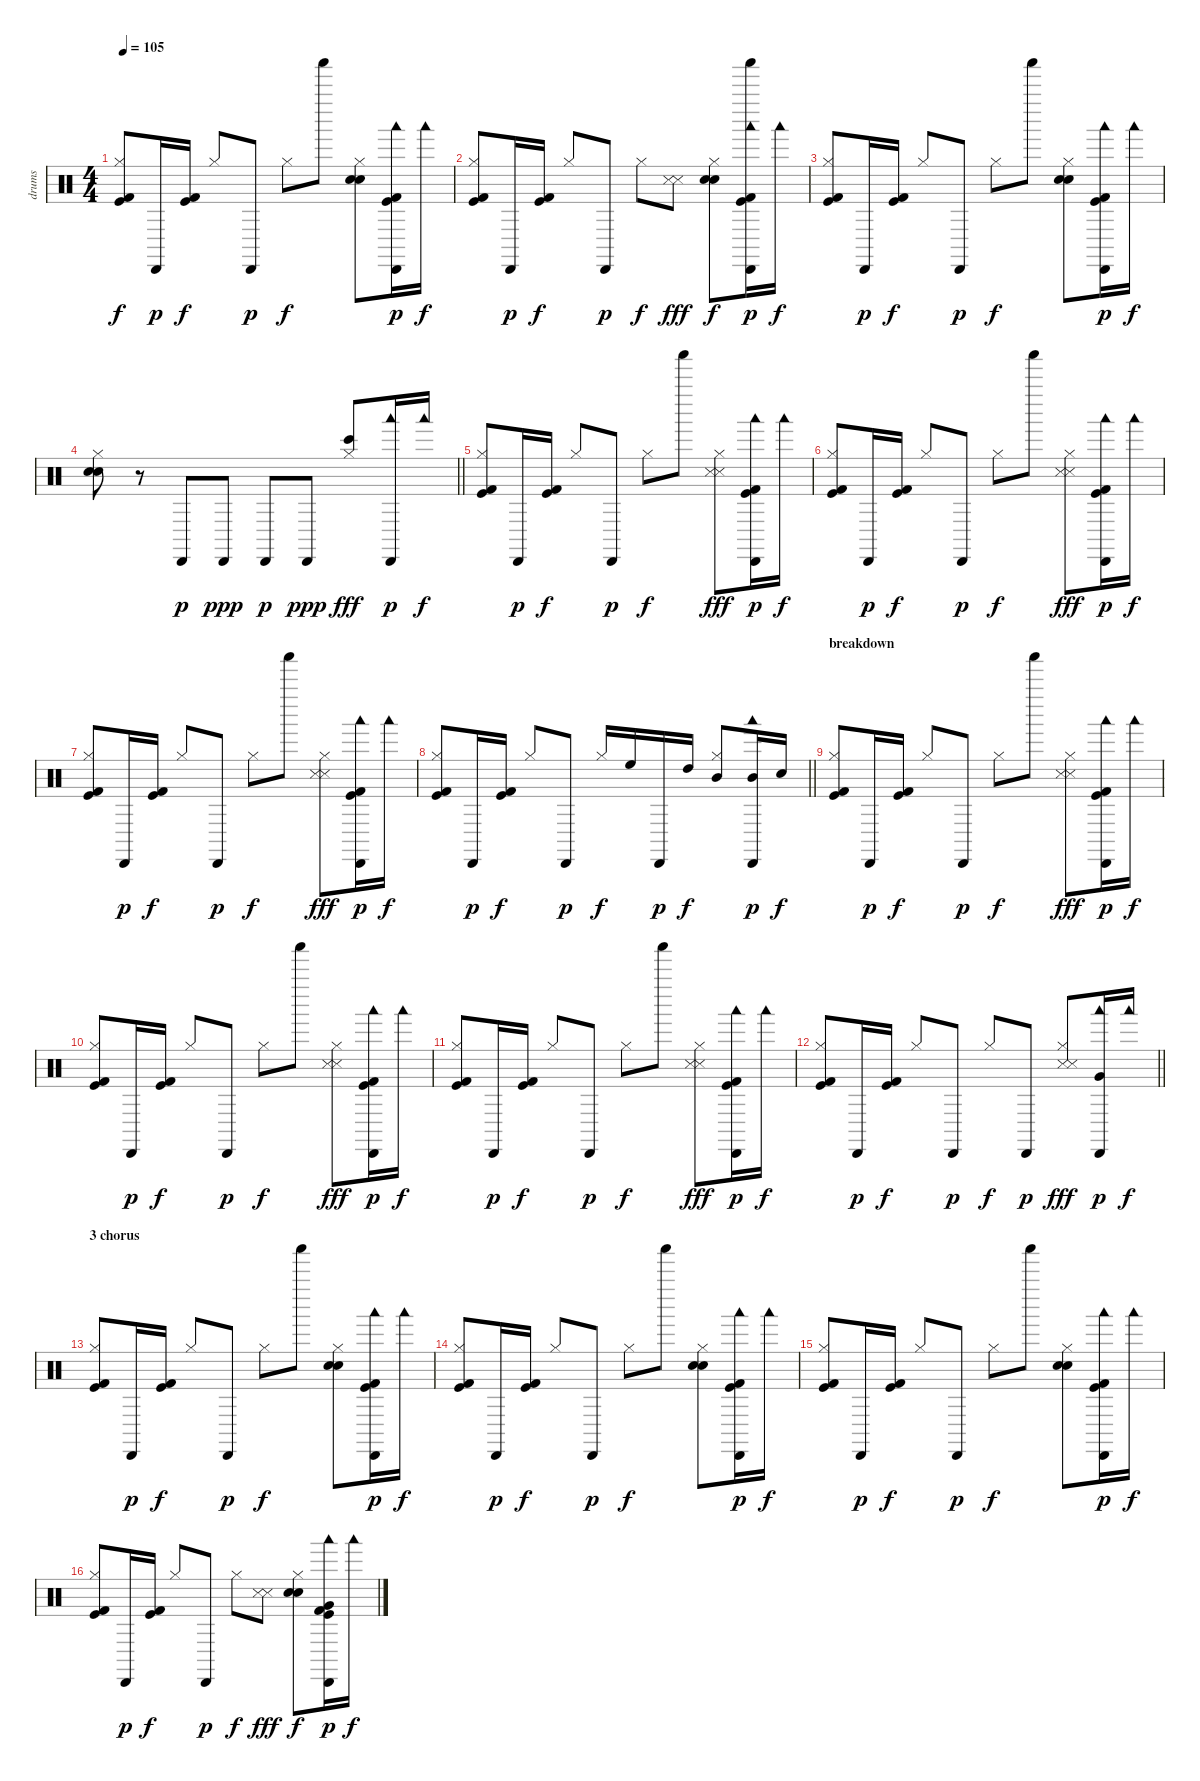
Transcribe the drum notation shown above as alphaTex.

\track ("drums" "drums") {instrument percussion}
\staff {score}
\articulation defaults
\ts (4 4)
\tempo 105
\clef neutral
\ks c
("Hi-Hat (closed)" "Kick (hit)" "Kick (hit) 2").8{dy f balance 8} "Cabasa (hit)".16{dy p} ("Kick (hit)" "Kick (hit) 2").16{dy f} "Hi-Hat (closed)".8 "Cabasa (hit)".8{dy p} "Hi-Hat (closed)".8{dy f} "Shaker (hit)".8 ("Hi-Hat (closed)" "Snare (hit) 2" "Electric Snare (hit)").8{volume 16} ("Cabasa (hit)" "Woodblock low (hit)" "Kick (hit)" "Kick (hit) 2").16{dy p volume 13} "Woodblock low (hit)".16{dy f} |
("Hi-Hat (closed)" "Kick (hit)" "Kick (hit) 2").8{balance 8} "Cabasa (hit)".16{dy p} ("Kick (hit)" "Kick (hit) 2").16{dy f} "Hi-Hat (closed)".8 "Cabasa (hit)".8{dy p} "Hi-Hat (closed)".8{dy f} ("Snare (side stick) 3" "Snare (side stick) 3").8{dy fff} ("Hi-Hat (closed)" "Snare (hit) 2" "Electric Snare (hit)").8{dy f volume 16} ("Cabasa (hit)" "Shaker (hit)" "Woodblock low (hit)" "Kick (hit)" "Kick (hit) 2").16{dy p volume 13} "Woodblock low (hit)".16{dy f} |
("Hi-Hat (closed)" "Kick (hit)" "Kick (hit) 2").8{balance 8} "Cabasa (hit)".16{dy p} ("Kick (hit)" "Kick (hit) 2").16{dy f} "Hi-Hat (closed)".8 "Cabasa (hit)".8{dy p} "Hi-Hat (closed)".8{dy f} "Shaker (hit)".8 ("Hi-Hat (closed)" "Snare (hit) 2" "Electric Snare (hit)").8{volume 16} ("Cabasa (hit)" "Woodblock low (hit)" "Kick (hit)" "Kick (hit) 2").16{dy p volume 13} "Woodblock low (hit)".16{dy f} |
\barLineRight lightlight
("Hi-Hat (closed)" "Snare (hit) 2" "Electric Snare (hit)").8{volume 16} r.8{volume 13} "Cabasa (hit)".8{dy p} "Cabasa (hit)".8{dy ppp} "Cabasa (hit)".8{dy p} "Cabasa (hit)".8{dy ppp} ("Hi-Hat (closed)" "Bongo High (hit)").8{dy fff} ("Cabasa (hit)" "Woodblock low (hit)").16{dy p} "Woodblock low (hit)".16{dy f} |
\section ("" "")
("Hi-Hat (closed)" "Kick (hit)" "Kick (hit) 2").8 "Cabasa (hit)".16{dy p} ("Kick (hit)" "Kick (hit) 2").16{dy f} "Hi-Hat (closed)".8 "Cabasa (hit)".8{dy p} "Hi-Hat (closed)".8{dy f} "Shaker (hit)".8 ("Hi-Hat (closed)" "Snare (side stick) 3" "Snare (side stick) 3").8{dy fff} ("Cabasa (hit)" "Woodblock low (hit)" "Kick (hit)" "Kick (hit) 2").16{dy p} "Woodblock low (hit)".16{dy f} |
("Hi-Hat (closed)" "Kick (hit)" "Kick (hit) 2").8 "Cabasa (hit)".16{dy p} ("Kick (hit)" "Kick (hit) 2").16{dy f} "Hi-Hat (closed)".8 "Cabasa (hit)".8{dy p} "Hi-Hat (closed)".8{dy f} "Shaker (hit)".8 ("Hi-Hat (closed)" "Snare (side stick) 3" "Snare (side stick) 3").8{dy fff} ("Cabasa (hit)" "Woodblock low (hit)" "Kick (hit)" "Kick (hit) 2").16{dy p} "Woodblock low (hit)".16{dy f} |
("Hi-Hat (closed)" "Kick (hit)" "Kick (hit) 2").8 "Cabasa (hit)".16{dy p} ("Kick (hit)" "Kick (hit) 2").16{dy f} "Hi-Hat (closed)".8 "Cabasa (hit)".8{dy p} "Hi-Hat (closed)".8{dy f} "Shaker (hit)".8 ("Hi-Hat (closed)" "Snare (side stick) 3" "Snare (side stick) 3").8{dy fff} ("Cabasa (hit)" "Woodblock low (hit)" "Kick (hit)" "Kick (hit) 2").16{dy p} "Woodblock low (hit)".16{dy f} |
\barLineRight lightlight
("Hi-Hat (closed)" "Kick (hit)" "Kick (hit) 2").8 "Cabasa (hit)".16{dy p} ("Kick (hit)" "Kick (hit) 2").16{dy f} "Hi-Hat (closed)".8 "Cabasa (hit)".8{dy p} "Hi-Hat (closed)".16{dy f} "High Floor Tom (hit)".16{balance 2} "Cabasa (hit)".16{dy p} "High Tom (hit)".16{dy f} ("Hi-Hat (closed)" "Mid Tom (hit)").8{balance 14} ("Cabasa (hit)" "Woodblock low (hit)" "Mid Tom (hit)").16{dy p} "Snare (hit)".16{dy f} |
\section ("" "breakdown")
("Hi-Hat (closed)" "Kick (hit)" "Kick (hit) 2").8{balance 8} "Cabasa (hit)".16{dy p} ("Kick (hit)" "Kick (hit) 2").16{dy f} "Hi-Hat (closed)".8 "Cabasa (hit)".8{dy p} "Hi-Hat (closed)".8{dy f} "Shaker (hit)".8 ("Hi-Hat (closed)" "Snare (side stick) 3" "Snare (side stick) 3").8{dy fff} ("Cabasa (hit)" "Woodblock low (hit)" "Kick (hit)" "Kick (hit) 2").16{dy p} "Woodblock low (hit)".16{dy f} |
("Hi-Hat (closed)" "Kick (hit)" "Kick (hit) 2").8 "Cabasa (hit)".16{dy p} ("Kick (hit)" "Kick (hit) 2").16{dy f} "Hi-Hat (closed)".8 "Cabasa (hit)".8{dy p} "Hi-Hat (closed)".8{dy f} "Shaker (hit)".8 ("Hi-Hat (closed)" "Snare (side stick) 3" "Snare (side stick) 3").8{dy fff} ("Cabasa (hit)" "Woodblock low (hit)" "Kick (hit)" "Kick (hit) 2").16{dy p} "Woodblock low (hit)".16{dy f} |
("Hi-Hat (closed)" "Kick (hit)" "Kick (hit) 2").8 "Cabasa (hit)".16{dy p} ("Kick (hit)" "Kick (hit) 2").16{dy f} "Hi-Hat (closed)".8 "Cabasa (hit)".8{dy p} "Hi-Hat (closed)".8{dy f} "Shaker (hit)".8 ("Hi-Hat (closed)" "Snare (side stick) 3" "Snare (side stick) 3").8{dy fff} ("Cabasa (hit)" "Woodblock low (hit)" "Kick (hit)" "Kick (hit) 2").16{dy p} "Woodblock low (hit)".16{dy f} |
\barLineRight lightlight
("Hi-Hat (closed)" "Kick (hit)" "Kick (hit) 2").8 "Cabasa (hit)".16{dy p} ("Kick (hit)" "Kick (hit) 2").16{dy f} "Hi-Hat (closed)".8 "Cabasa (hit)".8{dy p} "Hi-Hat (closed)".8{dy f} "Cabasa (hit)".8{dy p} ("Hi-Hat (closed)" "Snare (side stick) 3" "Snare (side stick) 3").8{dy fff} ("Cabasa (hit)" "Woodblock low (hit)" "Very Low Tom (hit)").16{dy p} "Woodblock low (hit)".16{dy f} |
\section ("" "3 chorus")
("Hi-Hat (closed)" "Kick (hit)" "Kick (hit) 2").8{balance 8} "Cabasa (hit)".16{dy p} ("Kick (hit)" "Kick (hit) 2").16{dy f} "Hi-Hat (closed)".8 "Cabasa (hit)".8{dy p} "Hi-Hat (closed)".8{dy f} "Shaker (hit)".8 ("Hi-Hat (closed)" "Snare (hit) 2" "Electric Snare (hit)").8{volume 16} ("Cabasa (hit)" "Woodblock low (hit)" "Kick (hit)" "Kick (hit) 2").16{dy p volume 13} "Woodblock low (hit)".16{dy f} |
("Hi-Hat (closed)" "Kick (hit)" "Kick (hit) 2").8{balance 8} "Cabasa (hit)".16{dy p} ("Kick (hit)" "Kick (hit) 2").16{dy f} "Hi-Hat (closed)".8 "Cabasa (hit)".8{dy p} "Hi-Hat (closed)".8{dy f} "Shaker (hit)".8 ("Hi-Hat (closed)" "Snare (hit) 2" "Electric Snare (hit)").8{volume 16} ("Cabasa (hit)" "Woodblock low (hit)" "Kick (hit)" "Kick (hit) 2").16{dy p volume 13} "Woodblock low (hit)".16{dy f} |
("Hi-Hat (closed)" "Kick (hit)" "Kick (hit) 2").8{balance 8} "Cabasa (hit)".16{dy p} ("Kick (hit)" "Kick (hit) 2").16{dy f} "Hi-Hat (closed)".8 "Cabasa (hit)".8{dy p} "Hi-Hat (closed)".8{dy f} "Shaker (hit)".8 ("Hi-Hat (closed)" "Snare (hit) 2" "Electric Snare (hit)").8{volume 16} ("Cabasa (hit)" "Woodblock low (hit)" "Kick (hit)" "Kick (hit) 2").16{dy p volume 13} "Woodblock low (hit)".16{dy f} |
("Hi-Hat (closed)" "Kick (hit)" "Kick (hit) 2").8{balance 8} "Cabasa (hit)".16{dy p} ("Kick (hit)" "Kick (hit) 2").16{dy f} "Hi-Hat (closed)".8 "Cabasa (hit)".8{dy p} "Hi-Hat (closed)".8{dy f} ("Snare (side stick) 3" "Snare (side stick) 3").8{dy fff} ("Hi-Hat (closed)" "Snare (hit) 2" "Electric Snare (hit)").8{dy f volume 16} ("Cabasa (hit)" "Woodblock low (hit)" "Very Low Tom (hit)" "Kick (hit)" "Kick (hit) 2").16{dy p volume 13} "Woodblock low (hit)".16{dy f}
